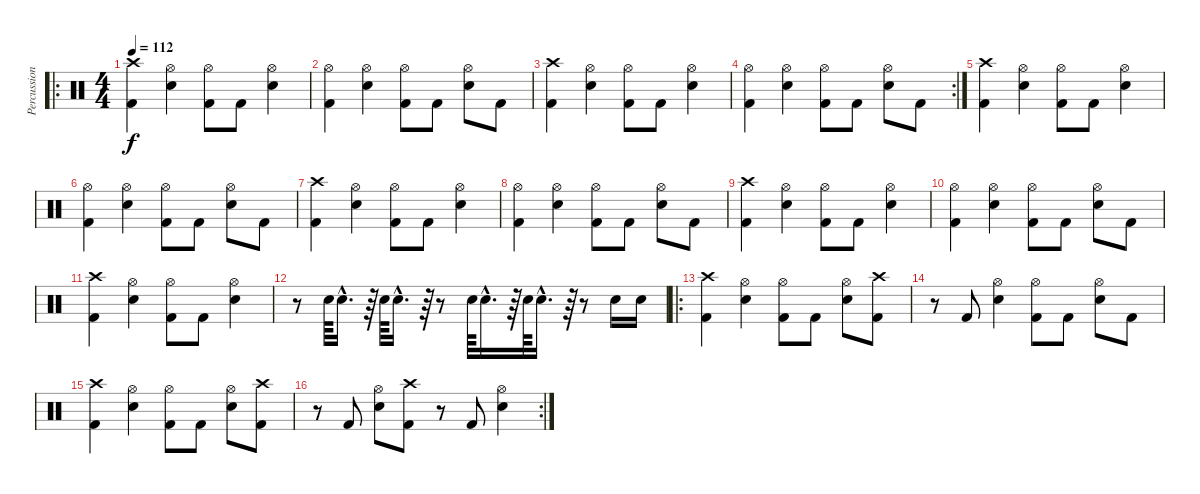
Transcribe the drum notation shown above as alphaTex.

\track ("Percussion" "Percussion") {instrument percussion}
\staff {score}
\articulation defaults
\ro
\ts (4 4)
\tempo 112
\clef neutral
\ks c
("Crash high (hit)" "Kick (hit) 2").4{dy f} ("Hi-Hat (open)" "Snare (hit) 2").4 ("Hi-Hat (open)" "Kick (hit) 2").8 "Kick (hit) 2".8 ("Hi-Hat (open)" "Snare (hit) 2").4 |
("Hi-Hat (open)" "Kick (hit) 2").4 ("Hi-Hat (open)" "Snare (hit) 2").4 ("Hi-Hat (open)" "Kick (hit) 2").8 "Kick (hit) 2".8 ("Hi-Hat (open)" "Snare (hit) 2").8 "Kick (hit) 2".8 |
("Crash high (hit)" "Kick (hit) 2").4 ("Hi-Hat (open)" "Snare (hit) 2").4 ("Hi-Hat (open)" "Kick (hit) 2").8 "Kick (hit) 2".8 ("Hi-Hat (open)" "Snare (hit) 2").4 |
\rc 2
("Hi-Hat (open)" "Kick (hit) 2").4 ("Hi-Hat (open)" "Snare (hit) 2").4 ("Hi-Hat (open)" "Kick (hit) 2").8 "Kick (hit) 2".8 ("Hi-Hat (open)" "Snare (hit) 2").8 "Kick (hit) 2".8 |
("Crash high (hit)" "Kick (hit) 2").4 ("Hi-Hat (open)" "Snare (hit) 2").4 ("Hi-Hat (open)" "Kick (hit) 2").8 "Kick (hit) 2".8 ("Hi-Hat (open)" "Snare (hit) 2").4 |
("Hi-Hat (open)" "Kick (hit) 2").4 ("Hi-Hat (open)" "Snare (hit) 2").4 ("Hi-Hat (open)" "Kick (hit) 2").8 "Kick (hit) 2".8 ("Hi-Hat (open)" "Snare (hit) 2").8 "Kick (hit) 2".8 |
("Crash high (hit)" "Kick (hit) 2").4 ("Hi-Hat (open)" "Snare (hit) 2").4 ("Hi-Hat (open)" "Kick (hit) 2").8 "Kick (hit) 2".8 ("Hi-Hat (open)" "Snare (hit) 2").4 |
("Hi-Hat (open)" "Kick (hit) 2").4 ("Hi-Hat (open)" "Snare (hit) 2").4 ("Hi-Hat (open)" "Kick (hit) 2").8 "Kick (hit) 2".8 ("Hi-Hat (open)" "Snare (hit) 2").8 "Kick (hit) 2".8 |
("Crash high (hit)" "Kick (hit) 2").4 ("Hi-Hat (open)" "Snare (hit) 2").4 ("Hi-Hat (open)" "Kick (hit) 2").8 "Kick (hit) 2".8 ("Hi-Hat (open)" "Snare (hit) 2").4 |
("Hi-Hat (open)" "Kick (hit) 2").4 ("Hi-Hat (open)" "Snare (hit) 2").4 ("Hi-Hat (open)" "Kick (hit) 2").8 "Kick (hit) 2".8 ("Hi-Hat (open)" "Snare (hit) 2").8 "Kick (hit) 2".8 |
("Crash high (hit)" "Kick (hit) 2").4 ("Hi-Hat (open)" "Snare (hit) 2").4 ("Hi-Hat (open)" "Kick (hit) 2").8 "Kick (hit) 2".8 ("Hi-Hat (open)" "Snare (hit) 2").4 |
r.8 "Snare (hit) 2".64 "Snare (hit) 2"{hac}.16{d} r.64 "Snare (hit) 2".64 "Snare (hit) 2"{hac}.16{d} r.64 r.8 "Snare (hit) 2".64 "Snare (hit) 2"{hac}.16{d} r.64 "Snare (hit) 2".64 "Snare (hit) 2"{hac}.16{d} r.64 r.8 "Snare (hit) 2".16 "Snare (hit) 2".16 |
\ro
("Crash high (hit)" "Kick (hit) 2").4 ("Hi-Hat (open)" "Snare (hit) 2").4 ("Hi-Hat (open)" "Kick (hit) 2").8 "Kick (hit) 2".8 ("Hi-Hat (open)" "Snare (hit) 2").8 ("Crash high (hit)" "Kick (hit) 2").8 |
r.8 "Kick (hit) 2".8 ("Hi-Hat (open)" "Snare (hit) 2").4 ("Hi-Hat (open)" "Kick (hit) 2").8 "Kick (hit) 2".8 ("Hi-Hat (open)" "Snare (hit) 2").8 "Kick (hit) 2".8 |
("Crash high (hit)" "Kick (hit) 2").4 ("Hi-Hat (open)" "Snare (hit) 2").4 ("Hi-Hat (open)" "Kick (hit) 2").8 "Kick (hit) 2".8 ("Hi-Hat (open)" "Snare (hit) 2").8 ("Crash high (hit)" "Kick (hit) 2").8 |
\rc 2
r.8 "Kick (hit) 2".8 ("Hi-Hat (open)" "Snare (hit) 2").8 ("Crash high (hit)" "Kick (hit) 2").8 r.8 "Kick (hit) 2".8 ("Hi-Hat (open)" "Snare (hit) 2").4
